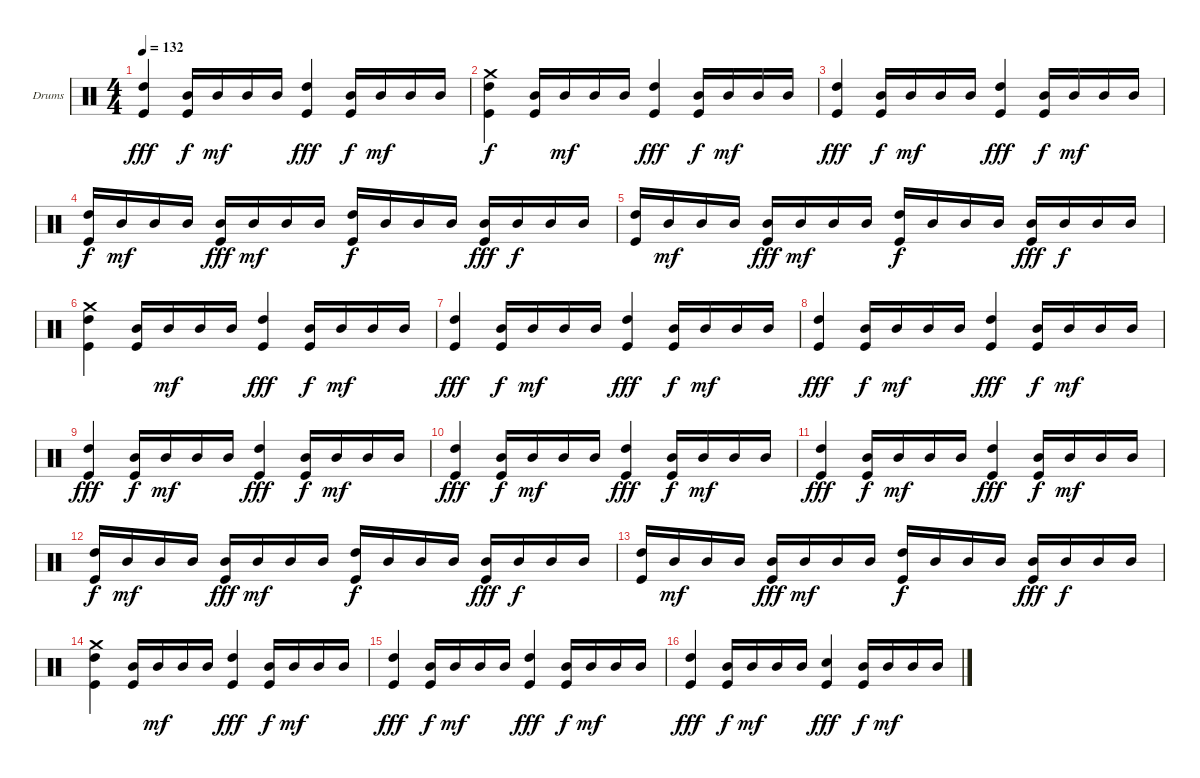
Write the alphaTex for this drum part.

\bracketExtendMode groupsimilarinstruments
\firstSystemTrackNameOrientation horizontal
\otherSystemsTrackNameOrientation horizontal
\track ("Larry" "Drums") {instrument percussion}
\staff {score}
\articulation defaults
\ts (4 4)
\tempo 132
\clef neutral
\ks c
("High Tom (hit)" "Kick (hit)").4{dy fff} ("Mid Tom (hit)" "Kick (hit)").16{dy f} "Mid Tom (hit)".16{dy mf} "Mid Tom (hit)".16 "Mid Tom (hit)".16 ("High Tom (hit)" "Kick (hit)").4{dy fff} ("Mid Tom (hit)" "Kick (hit)").16{dy f} "Mid Tom (hit)".16{dy mf} "Mid Tom (hit)".16 "Mid Tom (hit)".16 |
("Crash medium (hit)" "High Tom (hit)" "Kick (hit)").4{dy f} ("Mid Tom (hit)" "Kick (hit)").16 "Mid Tom (hit)".16{dy mf} "Mid Tom (hit)".16 "Mid Tom (hit)".16 ("High Tom (hit)" "Kick (hit)").4{dy fff} ("Mid Tom (hit)" "Kick (hit)").16{dy f} "Mid Tom (hit)".16{dy mf} "Mid Tom (hit)".16 "Mid Tom (hit)".16 |
("High Tom (hit)" "Kick (hit)").4{dy fff} ("Mid Tom (hit)" "Kick (hit)").16{dy f} "Mid Tom (hit)".16{dy mf} "Mid Tom (hit)".16 "Mid Tom (hit)".16 ("High Tom (hit)" "Kick (hit)").4{dy fff} ("Mid Tom (hit)" "Kick (hit)").16{dy f} "Mid Tom (hit)".16{dy mf} "Mid Tom (hit)".16 "Mid Tom (hit)".16 |
("High Tom (hit)" "Kick (hit)").16{dy f} "Mid Tom (hit)".16{dy mf} "Mid Tom (hit)".16 "Mid Tom (hit)".16 ("Mid Tom (hit)" "Kick (hit)").16{dy fff} "Mid Tom (hit)".16{dy mf} "Mid Tom (hit)".16 "Mid Tom (hit)".16 ("High Tom (hit)" "Kick (hit)").16{dy f} "Mid Tom (hit)".16 "Mid Tom (hit)".16 "Mid Tom (hit)".16 ("Mid Tom (hit)" "Kick (hit)").16{dy fff} "Mid Tom (hit)".16{dy f} "Mid Tom (hit)".16 "Mid Tom (hit)".16 |
("High Tom (hit)" "Kick (hit)").16 "Mid Tom (hit)".16{dy mf} "Mid Tom (hit)".16 "Mid Tom (hit)".16 ("Mid Tom (hit)" "Kick (hit)").16{dy fff} "Mid Tom (hit)".16{dy mf} "Mid Tom (hit)".16 "Mid Tom (hit)".16 ("High Tom (hit)" "Kick (hit)").16{dy f} "Mid Tom (hit)".16 "Mid Tom (hit)".16 "Mid Tom (hit)".16 ("Mid Tom (hit)" "Kick (hit)").16{dy fff} "Mid Tom (hit)".16{dy f} "Mid Tom (hit)".16 "Mid Tom (hit)".16 |
("Crash medium (hit)" "High Tom (hit)" "Kick (hit)").4 ("Mid Tom (hit)" "Kick (hit)").16 "Mid Tom (hit)".16{dy mf} "Mid Tom (hit)".16 "Mid Tom (hit)".16 ("High Tom (hit)" "Kick (hit)").4{dy fff} ("Mid Tom (hit)" "Kick (hit)").16{dy f} "Mid Tom (hit)".16{dy mf} "Mid Tom (hit)".16 "Mid Tom (hit)".16 |
("High Tom (hit)" "Kick (hit)").4{dy fff} ("Mid Tom (hit)" "Kick (hit)").16{dy f} "Mid Tom (hit)".16{dy mf} "Mid Tom (hit)".16 "Mid Tom (hit)".16 ("High Tom (hit)" "Kick (hit)").4{dy fff} ("Mid Tom (hit)" "Kick (hit)").16{dy f} "Mid Tom (hit)".16{dy mf} "Mid Tom (hit)".16 "Mid Tom (hit)".16 |
("High Tom (hit)" "Kick (hit)").4{dy fff} ("Mid Tom (hit)" "Kick (hit)").16{dy f} "Mid Tom (hit)".16{dy mf} "Mid Tom (hit)".16 "Mid Tom (hit)".16 ("High Tom (hit)" "Kick (hit)").4{dy fff} ("Mid Tom (hit)" "Kick (hit)").16{dy f} "Mid Tom (hit)".16{dy mf} "Mid Tom (hit)".16 "Mid Tom (hit)".16 |
("High Tom (hit)" "Kick (hit)").4{dy fff} ("Mid Tom (hit)" "Kick (hit)").16{dy f} "Mid Tom (hit)".16{dy mf} "Mid Tom (hit)".16 "Mid Tom (hit)".16 ("High Tom (hit)" "Kick (hit)").4{dy fff} ("Mid Tom (hit)" "Kick (hit)").16{dy f} "Mid Tom (hit)".16{dy mf} "Mid Tom (hit)".16 "Mid Tom (hit)".16 |
("High Tom (hit)" "Kick (hit)").4{dy fff} ("Mid Tom (hit)" "Kick (hit)").16{dy f} "Mid Tom (hit)".16{dy mf} "Mid Tom (hit)".16 "Mid Tom (hit)".16 ("High Tom (hit)" "Kick (hit)").4{dy fff} ("Mid Tom (hit)" "Kick (hit)").16{dy f} "Mid Tom (hit)".16{dy mf} "Mid Tom (hit)".16 "Mid Tom (hit)".16 |
("High Tom (hit)" "Kick (hit)").4{dy fff} ("Mid Tom (hit)" "Kick (hit)").16{dy f} "Mid Tom (hit)".16{dy mf} "Mid Tom (hit)".16 "Mid Tom (hit)".16 ("High Tom (hit)" "Kick (hit)").4{dy fff} ("Mid Tom (hit)" "Kick (hit)").16{dy f} "Mid Tom (hit)".16{dy mf} "Mid Tom (hit)".16 "Mid Tom (hit)".16 |
("High Tom (hit)" "Kick (hit)").16{dy f} "Mid Tom (hit)".16{dy mf} "Mid Tom (hit)".16 "Mid Tom (hit)".16 ("Mid Tom (hit)" "Kick (hit)").16{dy fff} "Mid Tom (hit)".16{dy mf} "Mid Tom (hit)".16 "Mid Tom (hit)".16 ("High Tom (hit)" "Kick (hit)").16{dy f} "Mid Tom (hit)".16 "Mid Tom (hit)".16 "Mid Tom (hit)".16 ("Mid Tom (hit)" "Kick (hit)").16{dy fff} "Mid Tom (hit)".16{dy f} "Mid Tom (hit)".16 "Mid Tom (hit)".16 |
("High Tom (hit)" "Kick (hit)").16 "Mid Tom (hit)".16{dy mf} "Mid Tom (hit)".16 "Mid Tom (hit)".16 ("Mid Tom (hit)" "Kick (hit)").16{dy fff} "Mid Tom (hit)".16{dy mf} "Mid Tom (hit)".16 "Mid Tom (hit)".16 ("High Tom (hit)" "Kick (hit)").16{dy f} "Mid Tom (hit)".16 "Mid Tom (hit)".16 "Mid Tom (hit)".16 ("Mid Tom (hit)" "Kick (hit)").16{dy fff} "Mid Tom (hit)".16{dy f} "Mid Tom (hit)".16 "Mid Tom (hit)".16 |
("Crash medium (hit)" "High Tom (hit)" "Kick (hit)").4 ("Mid Tom (hit)" "Kick (hit)").16 "Mid Tom (hit)".16{dy mf} "Mid Tom (hit)".16 "Mid Tom (hit)".16 ("High Tom (hit)" "Kick (hit)").4{dy fff} ("Mid Tom (hit)" "Kick (hit)").16{dy f} "Mid Tom (hit)".16{dy mf} "Mid Tom (hit)".16 "Mid Tom (hit)".16 |
("High Tom (hit)" "Kick (hit)").4{dy fff} ("Mid Tom (hit)" "Kick (hit)").16{dy f} "Mid Tom (hit)".16{dy mf} "Mid Tom (hit)".16 "Mid Tom (hit)".16 ("High Tom (hit)" "Kick (hit)").4{dy fff} ("Mid Tom (hit)" "Kick (hit)").16{dy f} "Mid Tom (hit)".16{dy mf} "Mid Tom (hit)".16 "Mid Tom (hit)".16 |
("High Tom (hit)" "Kick (hit)").4{dy fff} ("Mid Tom (hit)" "Kick (hit)").16{dy f} "Mid Tom (hit)".16{dy mf} "Mid Tom (hit)".16 "Mid Tom (hit)".16 ("Snare (hit) 2" "Kick (hit)").4{dy fff} ("Mid Tom (hit)" "Kick (hit)").16{dy f} "Mid Tom (hit)".16{dy mf} "Mid Tom (hit)".16 "Mid Tom (hit)".16
